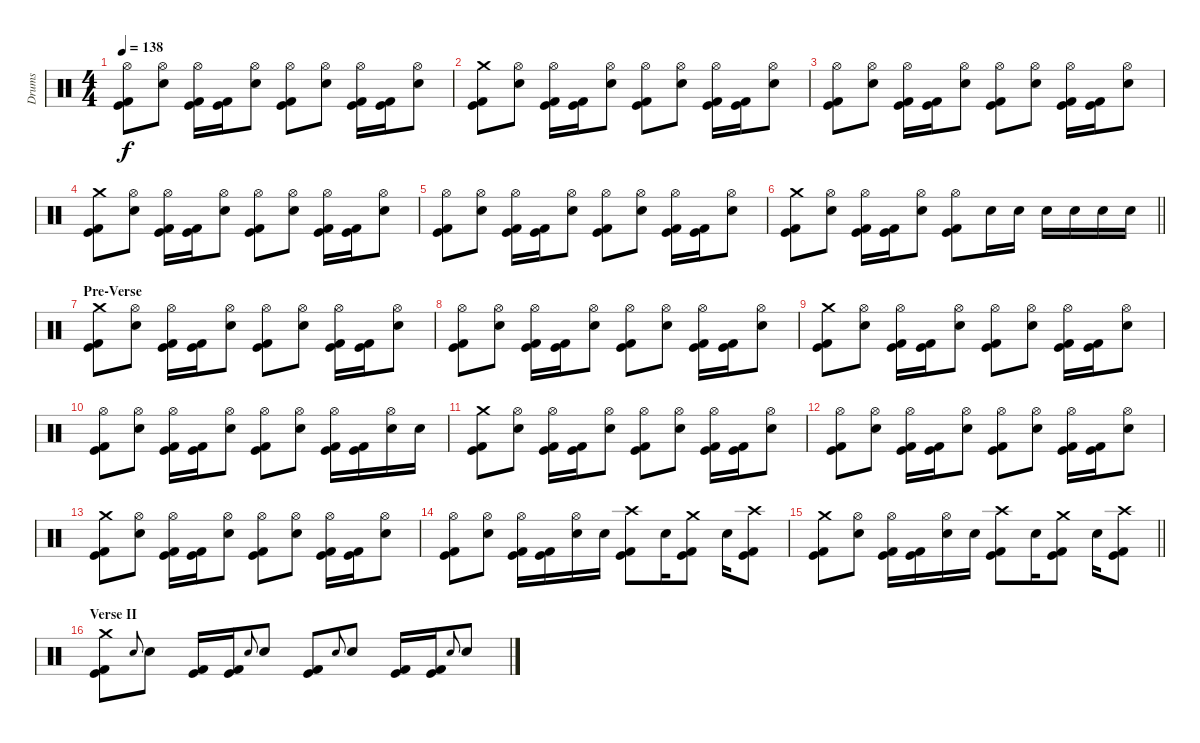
\track ("Drums" "Drums") {instrument percussion}
\staff {score}
\articulation defaults
\ts (4 4)
\tempo 138
\clef neutral
\ks c
("Hi-Hat (open)" "Kick (hit)" "Kick (hit) 2").8{dy f} ("Hi-Hat (open)" "Electric Snare (hit)").8 ("Hi-Hat (open)" "Kick (hit)" "Kick (hit) 2").16 ("Kick (hit)" "Kick (hit) 2").16 ("Hi-Hat (open)" "Electric Snare (hit)").8 ("Hi-Hat (open)" "Kick (hit)" "Kick (hit) 2").8 ("Hi-Hat (open)" "Electric Snare (hit)").8 ("Hi-Hat (open)" "Kick (hit)" "Kick (hit) 2").16 ("Kick (hit)" "Kick (hit) 2").16 ("Hi-Hat (open)" "Electric Snare (hit)").8 |
("Crash medium (hit)" "Kick (hit)" "Kick (hit) 2").8 ("Hi-Hat (open)" "Electric Snare (hit)").8 ("Hi-Hat (open)" "Kick (hit)" "Kick (hit) 2").16 ("Kick (hit)" "Kick (hit) 2").16 ("Hi-Hat (open)" "Electric Snare (hit)").8 ("Hi-Hat (open)" "Kick (hit)" "Kick (hit) 2").8 ("Hi-Hat (open)" "Electric Snare (hit)").8 ("Hi-Hat (open)" "Kick (hit)" "Kick (hit) 2").16 ("Kick (hit)" "Kick (hit) 2").16 ("Hi-Hat (open)" "Electric Snare (hit)").8 |
("Hi-Hat (open)" "Kick (hit)" "Kick (hit) 2").8 ("Hi-Hat (open)" "Electric Snare (hit)").8 ("Hi-Hat (open)" "Kick (hit)" "Kick (hit) 2").16 ("Kick (hit)" "Kick (hit) 2").16 ("Hi-Hat (open)" "Electric Snare (hit)").8 ("Hi-Hat (open)" "Kick (hit)" "Kick (hit) 2").8 ("Hi-Hat (open)" "Electric Snare (hit)").8 ("Hi-Hat (open)" "Kick (hit)" "Kick (hit) 2").16 ("Kick (hit)" "Kick (hit) 2").16 ("Hi-Hat (open)" "Electric Snare (hit)").8 |
("Crash medium (hit)" "Kick (hit)" "Kick (hit) 2").8 ("Hi-Hat (open)" "Electric Snare (hit)").8 ("Hi-Hat (open)" "Kick (hit)" "Kick (hit) 2").16 ("Kick (hit)" "Kick (hit) 2").16 ("Hi-Hat (open)" "Electric Snare (hit)").8 ("Hi-Hat (open)" "Kick (hit)" "Kick (hit) 2").8 ("Hi-Hat (open)" "Electric Snare (hit)").8 ("Hi-Hat (open)" "Kick (hit)" "Kick (hit) 2").16 ("Kick (hit)" "Kick (hit) 2").16 ("Hi-Hat (open)" "Electric Snare (hit)").8 |
("Hi-Hat (open)" "Kick (hit)" "Kick (hit) 2").8 ("Hi-Hat (open)" "Electric Snare (hit)").8 ("Hi-Hat (open)" "Kick (hit)" "Kick (hit) 2").16 ("Kick (hit)" "Kick (hit) 2").16 ("Hi-Hat (open)" "Electric Snare (hit)").8 ("Hi-Hat (open)" "Kick (hit)" "Kick (hit) 2").8 ("Hi-Hat (open)" "Electric Snare (hit)").8 ("Hi-Hat (open)" "Kick (hit)" "Kick (hit) 2").16 ("Kick (hit)" "Kick (hit) 2").16 ("Hi-Hat (open)" "Electric Snare (hit)").8 |
\barLineRight lightlight
("Crash medium (hit)" "Kick (hit)" "Kick (hit) 2").8 ("Hi-Hat (open)" "Electric Snare (hit)").8 ("Hi-Hat (open)" "Kick (hit)" "Kick (hit) 2").16 ("Kick (hit)" "Kick (hit) 2").16 ("Hi-Hat (open)" "Electric Snare (hit)").8 ("Hi-Hat (open)" "Kick (hit)" "Kick (hit) 2").8 "Electric Snare (hit)".16 "Electric Snare (hit)".16 "Electric Snare (hit)".16 "Electric Snare (hit)".16 "Electric Snare (hit)".16 "Electric Snare (hit)".16 |
\section ("" "Pre-Verse")
("Crash medium (hit)" "Kick (hit)" "Kick (hit) 2").8 ("Hi-Hat (open)" "Electric Snare (hit)").8 ("Hi-Hat (open)" "Kick (hit)" "Kick (hit) 2").16 ("Kick (hit)" "Kick (hit) 2").16 ("Hi-Hat (open)" "Electric Snare (hit)").8 ("Hi-Hat (open)" "Kick (hit)" "Kick (hit) 2").8 ("Hi-Hat (open)" "Electric Snare (hit)").8 ("Hi-Hat (open)" "Kick (hit)" "Kick (hit) 2").16 ("Kick (hit)" "Kick (hit) 2").16 ("Hi-Hat (open)" "Electric Snare (hit)").8 |
("Hi-Hat (open)" "Kick (hit)" "Kick (hit) 2").8 ("Hi-Hat (open)" "Electric Snare (hit)").8 ("Hi-Hat (open)" "Kick (hit)" "Kick (hit) 2").16 ("Kick (hit)" "Kick (hit) 2").16 ("Hi-Hat (open)" "Electric Snare (hit)").8 ("Hi-Hat (open)" "Kick (hit)" "Kick (hit) 2").8 ("Hi-Hat (open)" "Electric Snare (hit)").8 ("Hi-Hat (open)" "Kick (hit)" "Kick (hit) 2").16 ("Kick (hit)" "Kick (hit) 2").16 ("Hi-Hat (open)" "Electric Snare (hit)").8 |
("Crash medium (hit)" "Kick (hit)" "Kick (hit) 2").8 ("Hi-Hat (open)" "Electric Snare (hit)").8 ("Hi-Hat (open)" "Kick (hit)" "Kick (hit) 2").16 ("Kick (hit)" "Kick (hit) 2").16 ("Hi-Hat (open)" "Electric Snare (hit)").8 ("Hi-Hat (open)" "Kick (hit)" "Kick (hit) 2").8 ("Hi-Hat (open)" "Electric Snare (hit)").8 ("Hi-Hat (open)" "Kick (hit)" "Kick (hit) 2").16 ("Kick (hit)" "Kick (hit) 2").16 ("Hi-Hat (open)" "Electric Snare (hit)").8 |
("Hi-Hat (open)" "Kick (hit)" "Kick (hit) 2").8 ("Hi-Hat (open)" "Electric Snare (hit)").8 ("Hi-Hat (open)" "Kick (hit)" "Kick (hit) 2").16 ("Kick (hit)" "Kick (hit) 2").16 ("Hi-Hat (open)" "Electric Snare (hit)").8 ("Hi-Hat (open)" "Kick (hit)" "Kick (hit) 2").8 ("Hi-Hat (open)" "Electric Snare (hit)").8 ("Hi-Hat (open)" "Kick (hit)" "Kick (hit) 2").16 ("Kick (hit)" "Kick (hit) 2").16 ("Hi-Hat (open)" "Electric Snare (hit)").16 "Electric Snare (hit)".16 |
("Crash medium (hit)" "Kick (hit)" "Kick (hit) 2").8 ("Hi-Hat (open)" "Electric Snare (hit)").8 ("Hi-Hat (open)" "Kick (hit)" "Kick (hit) 2").16 ("Kick (hit)" "Kick (hit) 2").16 ("Hi-Hat (open)" "Electric Snare (hit)").8 ("Hi-Hat (open)" "Kick (hit)" "Kick (hit) 2").8 ("Hi-Hat (open)" "Electric Snare (hit)").8 ("Hi-Hat (open)" "Kick (hit)" "Kick (hit) 2").16 ("Kick (hit)" "Kick (hit) 2").16 ("Hi-Hat (open)" "Electric Snare (hit)").8 |
("Hi-Hat (open)" "Kick (hit)" "Kick (hit) 2").8 ("Hi-Hat (open)" "Electric Snare (hit)").8 ("Hi-Hat (open)" "Kick (hit)" "Kick (hit) 2").16 ("Kick (hit)" "Kick (hit) 2").16 ("Hi-Hat (open)" "Electric Snare (hit)").8 ("Hi-Hat (open)" "Kick (hit)" "Kick (hit) 2").8 ("Hi-Hat (open)" "Electric Snare (hit)").8 ("Hi-Hat (open)" "Kick (hit)" "Kick (hit) 2").16 ("Kick (hit)" "Kick (hit) 2").16 ("Hi-Hat (open)" "Electric Snare (hit)").8 |
("Crash medium (hit)" "Kick (hit)" "Kick (hit) 2").8 ("Hi-Hat (open)" "Electric Snare (hit)").8 ("Hi-Hat (open)" "Kick (hit)" "Kick (hit) 2").16 ("Kick (hit)" "Kick (hit) 2").16 ("Hi-Hat (open)" "Electric Snare (hit)").8 ("Hi-Hat (open)" "Kick (hit)" "Kick (hit) 2").8 ("Hi-Hat (open)" "Electric Snare (hit)").8 ("Hi-Hat (open)" "Kick (hit)" "Kick (hit) 2").16 ("Kick (hit)" "Kick (hit) 2").16 ("Hi-Hat (open)" "Electric Snare (hit)").8 |
("Hi-Hat (open)" "Kick (hit)" "Kick (hit) 2").8 ("Hi-Hat (open)" "Electric Snare (hit)").8 ("Hi-Hat (open)" "Kick (hit)" "Kick (hit) 2").16 ("Kick (hit)" "Kick (hit) 2").16 ("Hi-Hat (open)" "Electric Snare (hit)").16 "Electric Snare (hit)".16 ("Crash high (hit)" "Kick (hit)" "Kick (hit) 2").8 "Electric Snare (hit)".16 ("Crash medium (hit)" "Kick (hit)" "Kick (hit) 2").8 "Electric Snare (hit)".16 ("Crash high (hit)" "Kick (hit)" "Kick (hit) 2").8 |
\barLineRight lightlight
("Crash medium (hit)" "Kick (hit)" "Kick (hit) 2").8 ("Hi-Hat (open)" "Electric Snare (hit)").8 ("Hi-Hat (open)" "Kick (hit)" "Kick (hit) 2").16 ("Kick (hit)" "Kick (hit) 2").16 ("Hi-Hat (open)" "Electric Snare (hit)").16 "Electric Snare (hit)".16 ("Crash high (hit)" "Kick (hit)" "Kick (hit) 2").8 "Electric Snare (hit)".16 ("Crash medium (hit)" "Kick (hit)" "Kick (hit) 2").8 "Electric Snare (hit)".16 ("Crash high (hit)" "Kick (hit)" "Kick (hit) 2").8 |
\section ("" "Verse II")
("Crash medium (hit)" "Kick (hit)" "Kick (hit) 2").8 "Electric Snare (hit)".8{gr onbeat} "Electric Snare (hit)".8 ("Kick (hit)" "Kick (hit) 2").16 ("Kick (hit)" "Kick (hit) 2").16 "Electric Snare (hit)".8{gr onbeat} "Electric Snare (hit)".8 ("Kick (hit)" "Kick (hit) 2").8 "Electric Snare (hit)".8{gr onbeat} "Electric Snare (hit)".8 ("Kick (hit)" "Kick (hit) 2").16 ("Kick (hit)" "Kick (hit) 2").16 "Electric Snare (hit)".8{gr onbeat} "Electric Snare (hit)".8
